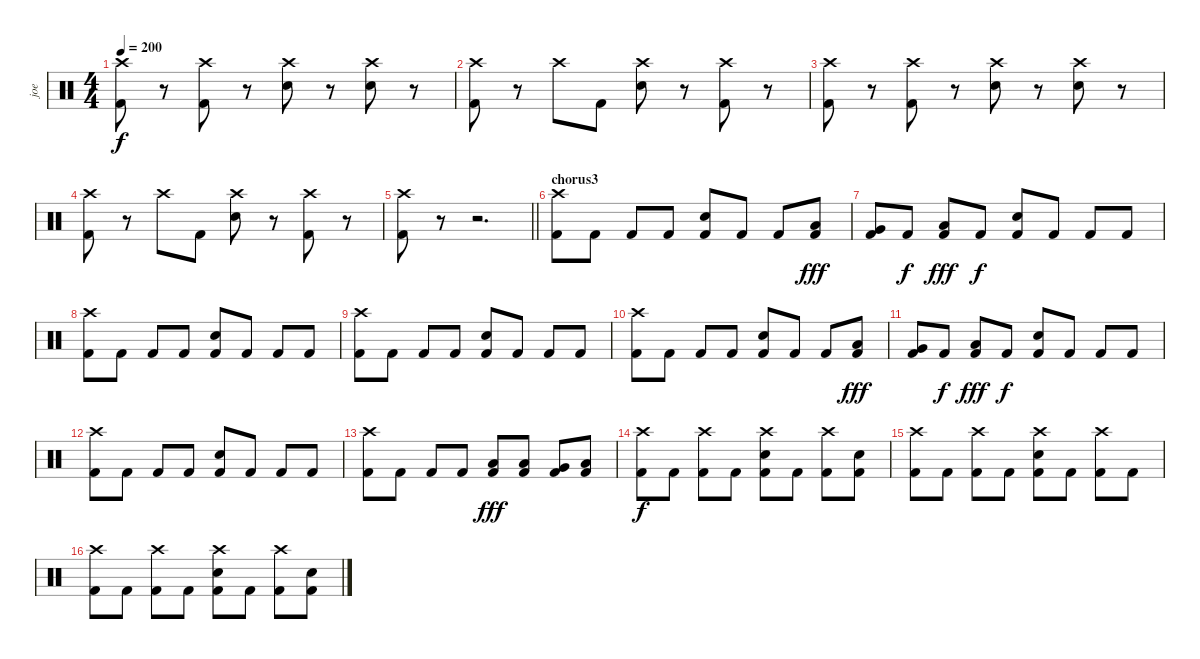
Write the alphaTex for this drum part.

\track ("joe" "joe") {instrument percussion}
\staff {score}
\articulation defaults
\ts (4 4)
\tempo 200
\clef neutral
\ks c
("Crash high (hit)" "Kick (hit) 2").8{dy f} r.8 ("Crash high (hit)" "Kick (hit) 2").8 r.8 ("Crash high (hit)" "Snare (hit) 2").8 r.8 ("Crash high (hit)" "Snare (hit) 2").8 r.8 |
("Crash high (hit)" "Kick (hit) 2").8 r.8 "Crash high (hit)".8 "Kick (hit) 2".8 ("Crash high (hit)" "Snare (hit) 2").8 r.8 ("Crash high (hit)" "Kick (hit) 2").8 r.8 |
("Crash high (hit)" "Kick (hit) 2").8 r.8 ("Crash high (hit)" "Kick (hit) 2").8 r.8 ("Crash high (hit)" "Snare (hit) 2").8 r.8 ("Crash high (hit)" "Snare (hit) 2").8 r.8 |
("Crash high (hit)" "Kick (hit) 2").8 r.8 "Crash high (hit)".8 "Kick (hit) 2".8 ("Crash high (hit)" "Snare (hit) 2").8 r.8 ("Crash high (hit)" "Kick (hit) 2").8 r.8 |
\barLineRight lightlight
("Crash high (hit)" "Kick (hit) 2").8 r.8 r.2{d} |
\section ("" "chorus3")
("Crash high (hit)" "Kick (hit) 2").8 "Kick (hit) 2".8 "Kick (hit) 2".8 "Kick (hit) 2".8 ("Snare (hit) 2" "Kick (hit) 2").8 "Kick (hit) 2".8 "Kick (hit) 2".8 ("Low Tom (hit)" "Kick (hit) 2").8{dy fff} |
("Very Low Tom (hit)" "Kick (hit) 2").8 "Kick (hit) 2".8{dy f} ("Low Floor Tom (hit)" "Kick (hit) 2").8{dy fff} "Kick (hit) 2".8{dy f} ("Snare (hit) 2" "Kick (hit) 2").8 "Kick (hit) 2".8 "Kick (hit) 2".8 "Kick (hit) 2".8 |
("Crash high (hit)" "Kick (hit) 2").8 "Kick (hit) 2".8 "Kick (hit) 2".8 "Kick (hit) 2".8 ("Snare (hit) 2" "Kick (hit) 2").8 "Kick (hit) 2".8 "Kick (hit) 2".8 "Kick (hit) 2".8 |
("Crash high (hit)" "Kick (hit) 2").8 "Kick (hit) 2".8 "Kick (hit) 2".8 "Kick (hit) 2".8 ("Snare (hit) 2" "Kick (hit) 2").8 "Kick (hit) 2".8 "Kick (hit) 2".8 "Kick (hit) 2".8 |
("Crash high (hit)" "Kick (hit) 2").8 "Kick (hit) 2".8 "Kick (hit) 2".8 "Kick (hit) 2".8 ("Snare (hit) 2" "Kick (hit) 2").8 "Kick (hit) 2".8 "Kick (hit) 2".8 ("Low Tom (hit)" "Kick (hit) 2").8{dy fff} |
("Very Low Tom (hit)" "Kick (hit) 2").8 "Kick (hit) 2".8{dy f} ("Low Floor Tom (hit)" "Kick (hit) 2").8{dy fff} "Kick (hit) 2".8{dy f} ("Snare (hit) 2" "Kick (hit) 2").8 "Kick (hit) 2".8 "Kick (hit) 2".8 "Kick (hit) 2".8 |
("Crash high (hit)" "Kick (hit) 2").8 "Kick (hit) 2".8 "Kick (hit) 2".8 "Kick (hit) 2".8 ("Snare (hit) 2" "Kick (hit) 2").8 "Kick (hit) 2".8 "Kick (hit) 2".8 "Kick (hit) 2".8 |
("Crash high (hit)" "Kick (hit) 2").8 "Kick (hit) 2".8 "Kick (hit) 2".8 "Kick (hit) 2".8 ("Low Tom (hit)" "Kick (hit) 2").8{dy fff} ("Low Tom (hit)" "Kick (hit) 2").8 ("Very Low Tom (hit)" "Kick (hit) 2").8 ("Low Floor Tom (hit)" "Kick (hit) 2").8 |
("Crash high (hit)" "Kick (hit) 2").8{dy f} "Kick (hit) 2".8 ("Crash high (hit)" "Kick (hit) 2").8 "Kick (hit) 2".8 ("Crash high (hit)" "Snare (hit) 2" "Kick (hit) 2").8 "Kick (hit) 2".8 ("Crash high (hit)" "Kick (hit) 2").8 ("Snare (hit) 2" "Kick (hit) 2").8 |
("Crash high (hit)" "Kick (hit) 2").8 "Kick (hit) 2".8 ("Crash high (hit)" "Kick (hit) 2").8 "Kick (hit) 2".8 ("Crash high (hit)" "Snare (hit) 2" "Kick (hit) 2").8 "Kick (hit) 2".8 ("Crash high (hit)" "Kick (hit) 2").8 "Kick (hit) 2".8 |
("Crash high (hit)" "Kick (hit) 2").8 "Kick (hit) 2".8 ("Crash high (hit)" "Kick (hit) 2").8 "Kick (hit) 2".8 ("Crash high (hit)" "Snare (hit) 2" "Kick (hit) 2").8 "Kick (hit) 2".8 ("Crash high (hit)" "Kick (hit) 2").8 ("Snare (hit) 2" "Kick (hit) 2").8
